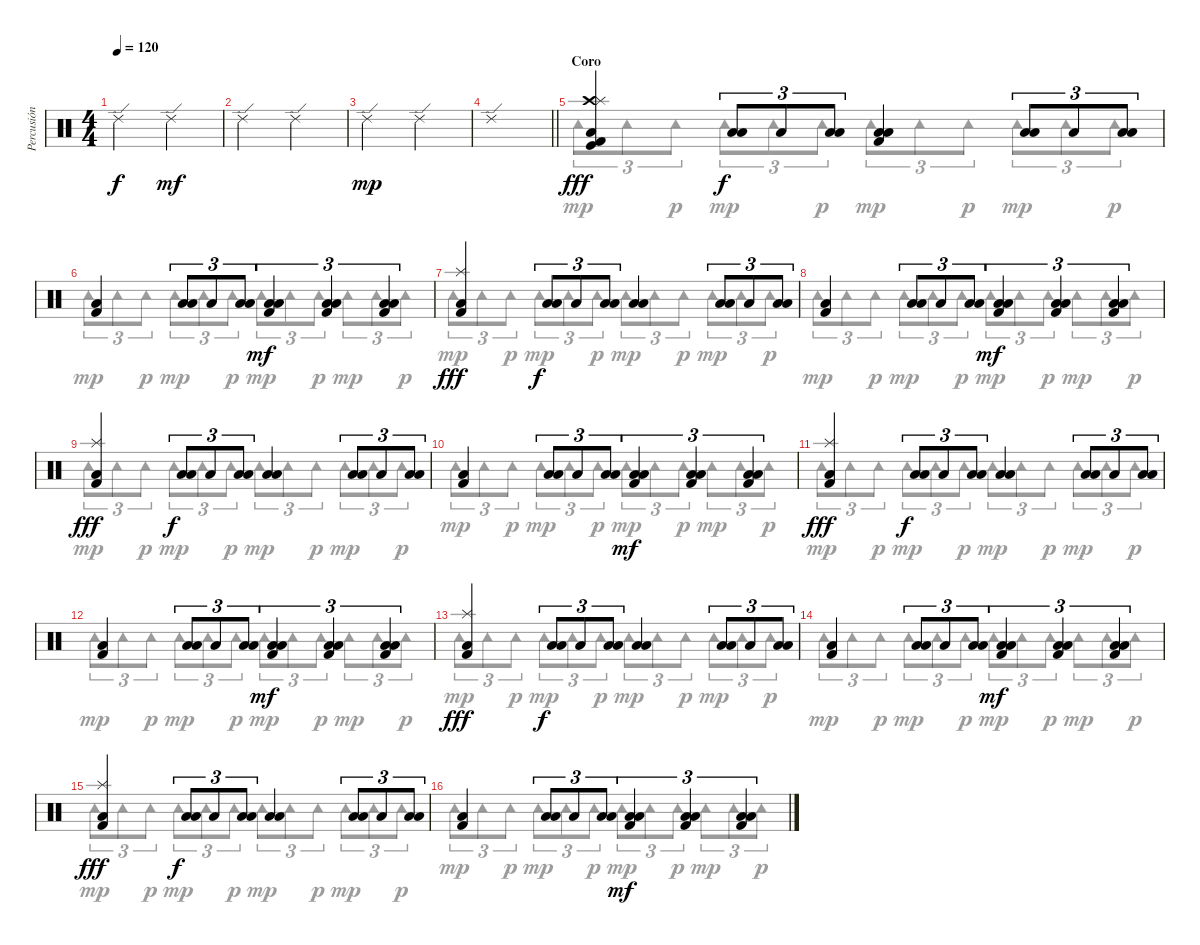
\track ("Percusión" "Percusión") {instrument percussion}
\staff {score}
\articulation defaults
\voice
\ts (4 4)
\tempo 120
\clef neutral
\ks c "Ride (edge) 2".2{dy f} "Ride (edge) 2".2{dy mf}
|
"Ride (edge) 2".2 "Ride (edge) 2".2 |
"Ride (edge) 2".2{dy mp} "Ride (edge) 2".2 |
\barLineRight lightlight "Ride (edge) 2".1
|
\section ("" "Coro")
("Crash high (hit)" "Splash (hit)" "Kick (hit)" "Low Floor Tom (hit)" "Kick (hit) 2").4{dy fff} ("Low Floor Tom (hit)" "Low Floor Tom (hit)").8{tu (3 2) dy f} "Low Floor Tom (hit)".8{tu (3 2)} ("Low Floor Tom (hit)" "Low Floor Tom (hit)").8{tu (3 2)} ("Kick (hit) 2" "Low Floor Tom (hit)" "Low Floor Tom (hit)").4 ("Low Floor Tom (hit)" "Low Floor Tom (hit)").8{tu (3 2)} "Low Floor Tom (hit)".8{tu (3 2)} ("Low Floor Tom (hit)" "Low Floor Tom (hit)").8{tu (3 2)} |
("Low Floor Tom (hit)" "Kick (hit) 2").4 ("Low Floor Tom (hit)" "Low Floor Tom (hit)").8{tu (3 2)} "Low Floor Tom (hit)".8{tu (3 2)} ("Low Floor Tom (hit)" "Low Floor Tom (hit)").8{tu (3 2)} ("Kick (hit) 2" "Low Floor Tom (hit)" "Low Floor Tom (hit)").4{tu (3 2) dy mf} ("Kick (hit) 2" "Low Floor Tom (hit)" "Low Floor Tom (hit)").4{tu (3 2)} ("Kick (hit) 2" "Low Floor Tom (hit)" "Low Floor Tom (hit)").4{tu (3 2)} |
("Splash (hit)" "Low Floor Tom (hit)" "Kick (hit) 2").4{dy fff} ("Low Floor Tom (hit)" "Low Floor Tom (hit)").8{tu (3 2) dy f} "Low Floor Tom (hit)".8{tu (3 2)} ("Low Floor Tom (hit)" "Low Floor Tom (hit)").8{tu (3 2)} ("Low Floor Tom (hit)" "Low Floor Tom (hit)").4 ("Low Floor Tom (hit)" "Low Floor Tom (hit)").8{tu (3 2)} "Low Floor Tom (hit)".8{tu (3 2)} ("Low Floor Tom (hit)" "Low Floor Tom (hit)").8{tu (3 2)} |
("Low Floor Tom (hit)" "Kick (hit) 2").4 ("Low Floor Tom (hit)" "Low Floor Tom (hit)").8{tu (3 2)} "Low Floor Tom (hit)".8{tu (3 2)} ("Low Floor Tom (hit)" "Low Floor Tom (hit)").8{tu (3 2)} ("Kick (hit) 2" "Low Floor Tom (hit)" "Low Floor Tom (hit)").4{tu (3 2) dy mf} ("Kick (hit) 2" "Low Floor Tom (hit)" "Low Floor Tom (hit)").4{tu (3 2)} ("Kick (hit) 2" "Low Floor Tom (hit)" "Low Floor Tom (hit)").4{tu (3 2)} |
("Splash (hit)" "Low Floor Tom (hit)" "Kick (hit) 2").4{dy fff} ("Low Floor Tom (hit)" "Low Floor Tom (hit)").8{tu (3 2) dy f} "Low Floor Tom (hit)".8{tu (3 2)} ("Low Floor Tom (hit)" "Low Floor Tom (hit)").8{tu (3 2)} ("Low Floor Tom (hit)" "Low Floor Tom (hit)").4 ("Low Floor Tom (hit)" "Low Floor Tom (hit)").8{tu (3 2)} "Low Floor Tom (hit)".8{tu (3 2)} ("Low Floor Tom (hit)" "Low Floor Tom (hit)").8{tu (3 2)} |
("Low Floor Tom (hit)" "Kick (hit) 2").4 ("Low Floor Tom (hit)" "Low Floor Tom (hit)").8{tu (3 2)} "Low Floor Tom (hit)".8{tu (3 2)} ("Low Floor Tom (hit)" "Low Floor Tom (hit)").8{tu (3 2)} ("Kick (hit) 2" "Low Floor Tom (hit)" "Low Floor Tom (hit)").4{tu (3 2) dy mf} ("Kick (hit) 2" "Low Floor Tom (hit)" "Low Floor Tom (hit)").4{tu (3 2)} ("Kick (hit) 2" "Low Floor Tom (hit)" "Low Floor Tom (hit)").4{tu (3 2)} |
("Splash (hit)" "Low Floor Tom (hit)" "Kick (hit) 2").4{dy fff} ("Low Floor Tom (hit)" "Low Floor Tom (hit)").8{tu (3 2) dy f} "Low Floor Tom (hit)".8{tu (3 2)} ("Low Floor Tom (hit)" "Low Floor Tom (hit)").8{tu (3 2)} ("Low Floor Tom (hit)" "Low Floor Tom (hit)").4 ("Low Floor Tom (hit)" "Low Floor Tom (hit)").8{tu (3 2)} "Low Floor Tom (hit)".8{tu (3 2)} ("Low Floor Tom (hit)" "Low Floor Tom (hit)").8{tu (3 2)} |
("Low Floor Tom (hit)" "Kick (hit) 2").4 ("Low Floor Tom (hit)" "Low Floor Tom (hit)").8{tu (3 2)} "Low Floor Tom (hit)".8{tu (3 2)} ("Low Floor Tom (hit)" "Low Floor Tom (hit)").8{tu (3 2)} ("Kick (hit) 2" "Low Floor Tom (hit)" "Low Floor Tom (hit)").4{tu (3 2) dy mf} ("Kick (hit) 2" "Low Floor Tom (hit)" "Low Floor Tom (hit)").4{tu (3 2)} ("Kick (hit) 2" "Low Floor Tom (hit)" "Low Floor Tom (hit)").4{tu (3 2)} |
("Splash (hit)" "Low Floor Tom (hit)" "Kick (hit) 2").4{dy fff} ("Low Floor Tom (hit)" "Low Floor Tom (hit)").8{tu (3 2) dy f} "Low Floor Tom (hit)".8{tu (3 2)} ("Low Floor Tom (hit)" "Low Floor Tom (hit)").8{tu (3 2)} ("Low Floor Tom (hit)" "Low Floor Tom (hit)").4 ("Low Floor Tom (hit)" "Low Floor Tom (hit)").8{tu (3 2)} "Low Floor Tom (hit)".8{tu (3 2)} ("Low Floor Tom (hit)" "Low Floor Tom (hit)").8{tu (3 2)} |
("Low Floor Tom (hit)" "Kick (hit) 2").4 ("Low Floor Tom (hit)" "Low Floor Tom (hit)").8{tu (3 2)} "Low Floor Tom (hit)".8{tu (3 2)} ("Low Floor Tom (hit)" "Low Floor Tom (hit)").8{tu (3 2)} ("Kick (hit) 2" "Low Floor Tom (hit)" "Low Floor Tom (hit)").4{tu (3 2) dy mf} ("Kick (hit) 2" "Low Floor Tom (hit)" "Low Floor Tom (hit)").4{tu (3 2)} ("Kick (hit) 2" "Low Floor Tom (hit)" "Low Floor Tom (hit)").4{tu (3 2)} |
("Splash (hit)" "Low Floor Tom (hit)" "Kick (hit) 2").4{dy fff} ("Low Floor Tom (hit)" "Low Floor Tom (hit)").8{tu (3 2) dy f} "Low Floor Tom (hit)".8{tu (3 2)} ("Low Floor Tom (hit)" "Low Floor Tom (hit)").8{tu (3 2)} ("Low Floor Tom (hit)" "Low Floor Tom (hit)").4 ("Low Floor Tom (hit)" "Low Floor Tom (hit)").8{tu (3 2)} "Low Floor Tom (hit)".8{tu (3 2)} ("Low Floor Tom (hit)" "Low Floor Tom (hit)").8{tu (3 2)} |
("Low Floor Tom (hit)" "Kick (hit) 2").4 ("Low Floor Tom (hit)" "Low Floor Tom (hit)").8{tu (3 2)} "Low Floor Tom (hit)".8{tu (3 2)} ("Low Floor Tom (hit)" "Low Floor Tom (hit)").8{tu (3 2)} ("Kick (hit) 2" "Low Floor Tom (hit)" "Low Floor Tom (hit)").4{tu (3 2) dy mf} ("Kick (hit) 2" "Low Floor Tom (hit)" "Low Floor Tom (hit)").4{tu (3 2)} ("Kick (hit) 2" "Low Floor Tom (hit)" "Low Floor Tom (hit)").4{tu (3 2)}
\voice
\clef neutral
\ottava regular
\simile none
\ks c
|
|
|
\barLineRight lightlight
|
"Tambourine (hit)".8{tu (3 2) dy mp} "Tambourine (hit)".8{tu (3 2)} "Tambourine (hit)".8{tu (3 2) dy p} "Tambourine (hit)".8{tu (3 2) dy mp} "Tambourine (hit)".8{tu (3 2)} "Tambourine (hit)".8{tu (3 2) dy p} "Tambourine (hit)".8{tu (3 2) dy mp} "Tambourine (hit)".8{tu (3 2)} "Tambourine (hit)".8{tu (3 2) dy p} "Tambourine (hit)".8{tu (3 2) dy mp} "Tambourine (hit)".8{tu (3 2)} "Tambourine (hit)".8{tu (3 2) dy p} |
"Tambourine (hit)".8{tu (3 2) dy mp} "Tambourine (hit)".8{tu (3 2)} "Tambourine (hit)".8{tu (3 2) dy p} "Tambourine (hit)".8{tu (3 2) dy mp} "Tambourine (hit)".8{tu (3 2)} "Tambourine (hit)".8{tu (3 2) dy p} "Tambourine (hit)".8{tu (3 2) dy mp} "Tambourine (hit)".8{tu (3 2)} "Tambourine (hit)".8{tu (3 2) dy p} "Tambourine (hit)".8{tu (3 2) dy mp} "Tambourine (hit)".8{tu (3 2)} "Tambourine (hit)".8{tu (3 2) dy p} |
"Tambourine (hit)".8{tu (3 2) dy mp} "Tambourine (hit)".8{tu (3 2)} "Tambourine (hit)".8{tu (3 2) dy p} "Tambourine (hit)".8{tu (3 2) dy mp} "Tambourine (hit)".8{tu (3 2)} "Tambourine (hit)".8{tu (3 2) dy p} "Tambourine (hit)".8{tu (3 2) dy mp} "Tambourine (hit)".8{tu (3 2)} "Tambourine (hit)".8{tu (3 2) dy p} "Tambourine (hit)".8{tu (3 2) dy mp} "Tambourine (hit)".8{tu (3 2)} "Tambourine (hit)".8{tu (3 2) dy p} |
"Tambourine (hit)".8{tu (3 2) dy mp} "Tambourine (hit)".8{tu (3 2)} "Tambourine (hit)".8{tu (3 2) dy p} "Tambourine (hit)".8{tu (3 2) dy mp} "Tambourine (hit)".8{tu (3 2)} "Tambourine (hit)".8{tu (3 2) dy p} "Tambourine (hit)".8{tu (3 2) dy mp} "Tambourine (hit)".8{tu (3 2)} "Tambourine (hit)".8{tu (3 2) dy p} "Tambourine (hit)".8{tu (3 2) dy mp} "Tambourine (hit)".8{tu (3 2)} "Tambourine (hit)".8{tu (3 2) dy p} |
"Tambourine (hit)".8{tu (3 2) dy mp} "Tambourine (hit)".8{tu (3 2)} "Tambourine (hit)".8{tu (3 2) dy p} "Tambourine (hit)".8{tu (3 2) dy mp} "Tambourine (hit)".8{tu (3 2)} "Tambourine (hit)".8{tu (3 2) dy p} "Tambourine (hit)".8{tu (3 2) dy mp} "Tambourine (hit)".8{tu (3 2)} "Tambourine (hit)".8{tu (3 2) dy p} "Tambourine (hit)".8{tu (3 2) dy mp} "Tambourine (hit)".8{tu (3 2)} "Tambourine (hit)".8{tu (3 2) dy p} |
"Tambourine (hit)".8{tu (3 2) dy mp} "Tambourine (hit)".8{tu (3 2)} "Tambourine (hit)".8{tu (3 2) dy p} "Tambourine (hit)".8{tu (3 2) dy mp} "Tambourine (hit)".8{tu (3 2)} "Tambourine (hit)".8{tu (3 2) dy p} "Tambourine (hit)".8{tu (3 2) dy mp} "Tambourine (hit)".8{tu (3 2)} "Tambourine (hit)".8{tu (3 2) dy p} "Tambourine (hit)".8{tu (3 2) dy mp} "Tambourine (hit)".8{tu (3 2)} "Tambourine (hit)".8{tu (3 2) dy p} |
"Tambourine (hit)".8{tu (3 2) dy mp} "Tambourine (hit)".8{tu (3 2)} "Tambourine (hit)".8{tu (3 2) dy p} "Tambourine (hit)".8{tu (3 2) dy mp} "Tambourine (hit)".8{tu (3 2)} "Tambourine (hit)".8{tu (3 2) dy p} "Tambourine (hit)".8{tu (3 2) dy mp} "Tambourine (hit)".8{tu (3 2)} "Tambourine (hit)".8{tu (3 2) dy p} "Tambourine (hit)".8{tu (3 2) dy mp} "Tambourine (hit)".8{tu (3 2)} "Tambourine (hit)".8{tu (3 2) dy p} |
"Tambourine (hit)".8{tu (3 2) dy mp} "Tambourine (hit)".8{tu (3 2)} "Tambourine (hit)".8{tu (3 2) dy p} "Tambourine (hit)".8{tu (3 2) dy mp} "Tambourine (hit)".8{tu (3 2)} "Tambourine (hit)".8{tu (3 2) dy p} "Tambourine (hit)".8{tu (3 2) dy mp} "Tambourine (hit)".8{tu (3 2)} "Tambourine (hit)".8{tu (3 2) dy p} "Tambourine (hit)".8{tu (3 2) dy mp} "Tambourine (hit)".8{tu (3 2)} "Tambourine (hit)".8{tu (3 2) dy p} |
"Tambourine (hit)".8{tu (3 2) dy mp} "Tambourine (hit)".8{tu (3 2)} "Tambourine (hit)".8{tu (3 2) dy p} "Tambourine (hit)".8{tu (3 2) dy mp} "Tambourine (hit)".8{tu (3 2)} "Tambourine (hit)".8{tu (3 2) dy p} "Tambourine (hit)".8{tu (3 2) dy mp} "Tambourine (hit)".8{tu (3 2)} "Tambourine (hit)".8{tu (3 2) dy p} "Tambourine (hit)".8{tu (3 2) dy mp} "Tambourine (hit)".8{tu (3 2)} "Tambourine (hit)".8{tu (3 2) dy p} |
"Tambourine (hit)".8{tu (3 2) dy mp} "Tambourine (hit)".8{tu (3 2)} "Tambourine (hit)".8{tu (3 2) dy p} "Tambourine (hit)".8{tu (3 2) dy mp} "Tambourine (hit)".8{tu (3 2)} "Tambourine (hit)".8{tu (3 2) dy p} "Tambourine (hit)".8{tu (3 2) dy mp} "Tambourine (hit)".8{tu (3 2)} "Tambourine (hit)".8{tu (3 2) dy p} "Tambourine (hit)".8{tu (3 2) dy mp} "Tambourine (hit)".8{tu (3 2)} "Tambourine (hit)".8{tu (3 2) dy p} |
"Tambourine (hit)".8{tu (3 2) dy mp} "Tambourine (hit)".8{tu (3 2)} "Tambourine (hit)".8{tu (3 2) dy p} "Tambourine (hit)".8{tu (3 2) dy mp} "Tambourine (hit)".8{tu (3 2)} "Tambourine (hit)".8{tu (3 2) dy p} "Tambourine (hit)".8{tu (3 2) dy mp} "Tambourine (hit)".8{tu (3 2)} "Tambourine (hit)".8{tu (3 2) dy p} "Tambourine (hit)".8{tu (3 2) dy mp} "Tambourine (hit)".8{tu (3 2)} "Tambourine (hit)".8{tu (3 2) dy p} |
"Tambourine (hit)".8{tu (3 2) dy mp} "Tambourine (hit)".8{tu (3 2)} "Tambourine (hit)".8{tu (3 2) dy p} "Tambourine (hit)".8{tu (3 2) dy mp} "Tambourine (hit)".8{tu (3 2)} "Tambourine (hit)".8{tu (3 2) dy p} "Tambourine (hit)".8{tu (3 2) dy mp} "Tambourine (hit)".8{tu (3 2)} "Tambourine (hit)".8{tu (3 2) dy p} "Tambourine (hit)".8{tu (3 2) dy mp} "Tambourine (hit)".8{tu (3 2)} "Tambourine (hit)".8{tu (3 2) dy p}
